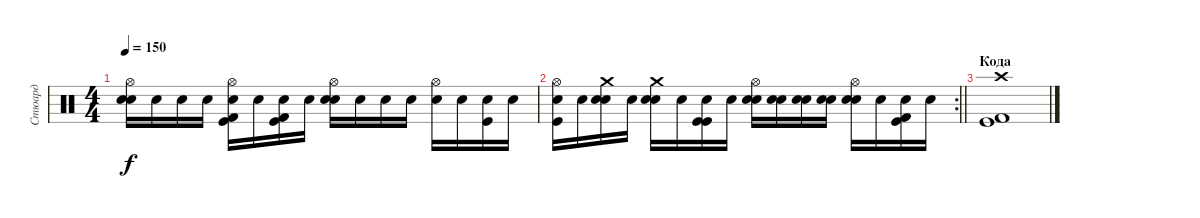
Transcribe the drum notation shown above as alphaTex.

\track ("Стюард" "Стюард") {instrument percussion}
\staff {score}
\articulation defaults
\ts (4 4)
\tempo 150
\clef neutral
\ks c
("Hi-Hat (open)" "Snare (hit) 2" "Snare (hit)"{x}).16{dy f} "Snare (hit)"{x}.16 "Snare (hit)"{x}.16 "Snare (hit)"{x}.16 ("Hi-Hat (open)" "Kick (hit) 2" "Kick (hit)" "Snare (hit)"{x}).16 "Snare (hit)"{x}.16 ("Kick (hit) 2" "Kick (hit)" "Snare (hit)"{x}).16 "Snare (hit)"{x}.16 ("Hi-Hat (open)" "Snare (hit) 2" "Snare (hit)"{x}).16 "Snare (hit)"{x}.16 "Snare (hit)"{x}.16 "Snare (hit)"{x}.16 ("Hi-Hat (open)" "Snare (hit)"{x}).16 "Snare (hit)"{x}.16 ("Kick (hit)" "Snare (hit)"{x}).16 "Snare (hit)"{x}.16 |
\rc 2
\barLineRight lightlight
("Hi-Hat (open)" "Kick (hit)" "Snare (hit)"{x}).16 "Snare (hit)"{x}.16 ("Crash medium (hit)" "Snare (hit) 2" "Snare (hit)"{x}).16 "Snare (hit)"{x}.16 ("Crash medium (hit)" "Snare (hit) 2" "Snare (hit)"{x}).16 "Snare (hit)"{x}.16 ("Kick (hit)" "Kick (hit)" "Snare (hit)"{x}).16 "Snare (hit)"{x}.16 ("Hi-Hat (open)" "Snare (hit) 2" "Snare (hit)"{x}).16 ("Snare (hit) 2" "Snare (hit)"{x}).16 ("Snare (hit) 2" "Snare (hit)"{x}).16 ("Snare (hit) 2" "Snare (hit)"{x}).16 ("Hi-Hat (open)" "Snare (hit) 2" "Snare (hit)"{x}).16 "Snare (hit)"{x}.16 ("Kick (hit) 2" "Kick (hit)" "Snare (hit)"{x}).16 "Snare (hit)"{x}.16 |
\section ("" "Кода")
("Crash high (hit)" "Kick (hit)" "Kick (hit) 2").1
